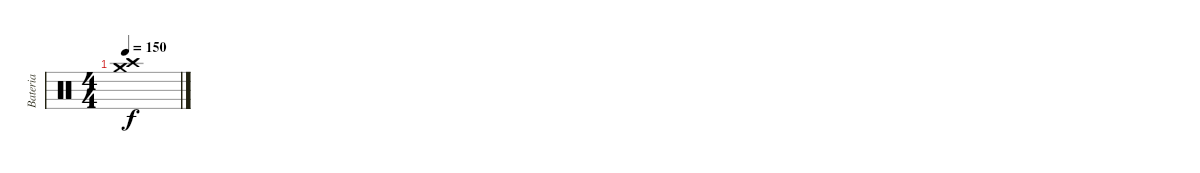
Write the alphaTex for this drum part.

\track ("Bateria" "Bateria") {instrument percussion}
\staff {score}
\articulation defaults
\ts (4 4)
\tempo 150
\clef neutral
\ks c
("Crash medium (hit)" "Crash high (hit)").1{dy f}
